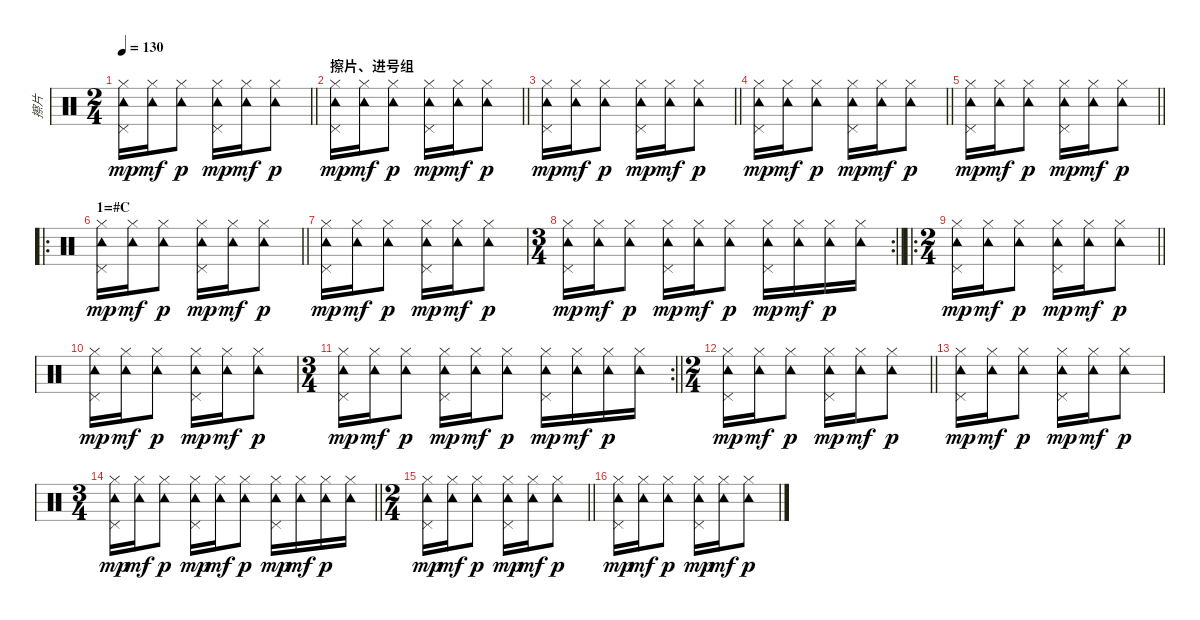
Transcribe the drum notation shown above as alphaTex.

\track ("擦片" "擦片") {instrument percussion}
\staff {score}
\articulation defaults
\ts (2 4)
\tempo 130
\clef neutral
\barLineRight lightlight
\ks c
("Hi-Hat (closed)" "Tambourine (hit)" "Pedal Hi-Hat (hit)").16{dy mp} ("Hi-Hat (closed)" "Tambourine (hit)").16{dy mf} ("Hi-Hat (closed)" "Tambourine (hit)").8{dy p} ("Hi-Hat (closed)" "Tambourine (hit)" "Pedal Hi-Hat (hit)").16{dy mp} ("Hi-Hat (closed)" "Tambourine (hit)").16{dy mf} ("Hi-Hat (closed)" "Tambourine (hit)").8{dy p} |
\section ("" "擦片、进号组")
\barLineRight lightlight
("Hi-Hat (closed)" "Tambourine (hit)" "Pedal Hi-Hat (hit)").16{dy mp} ("Hi-Hat (closed)" "Tambourine (hit)").16{dy mf} ("Hi-Hat (closed)" "Tambourine (hit)").8{dy p} ("Hi-Hat (closed)" "Tambourine (hit)" "Pedal Hi-Hat (hit)").16{dy mp} ("Hi-Hat (closed)" "Tambourine (hit)").16{dy mf} ("Hi-Hat (closed)" "Tambourine (hit)").8{dy p} |
\barLineRight lightlight
("Hi-Hat (closed)" "Tambourine (hit)" "Pedal Hi-Hat (hit)").16{dy mp} ("Hi-Hat (closed)" "Tambourine (hit)").16{dy mf} ("Hi-Hat (closed)" "Tambourine (hit)").8{dy p} ("Hi-Hat (closed)" "Tambourine (hit)" "Pedal Hi-Hat (hit)").16{dy mp} ("Hi-Hat (closed)" "Tambourine (hit)").16{dy mf} ("Hi-Hat (closed)" "Tambourine (hit)").8{dy p} |
\barLineRight lightlight
("Hi-Hat (closed)" "Tambourine (hit)" "Pedal Hi-Hat (hit)").16{dy mp} ("Hi-Hat (closed)" "Tambourine (hit)").16{dy mf} ("Hi-Hat (closed)" "Tambourine (hit)").8{dy p} ("Hi-Hat (closed)" "Tambourine (hit)" "Pedal Hi-Hat (hit)").16{dy mp} ("Hi-Hat (closed)" "Tambourine (hit)").16{dy mf} ("Hi-Hat (closed)" "Tambourine (hit)").8{dy p} |
\barLineRight lightlight
("Hi-Hat (closed)" "Tambourine (hit)" "Pedal Hi-Hat (hit)").16{dy mp} ("Hi-Hat (closed)" "Tambourine (hit)").16{dy mf} ("Hi-Hat (closed)" "Tambourine (hit)").8{dy p} ("Hi-Hat (closed)" "Tambourine (hit)" "Pedal Hi-Hat (hit)").16{dy mp} ("Hi-Hat (closed)" "Tambourine (hit)").16{dy mf} ("Hi-Hat (closed)" "Tambourine (hit)").8{dy p} |
\ro
\section ("" "1=#C")
\barLineRight lightlight
("Hi-Hat (closed)" "Tambourine (hit)" "Pedal Hi-Hat (hit)").16{dy mp} ("Hi-Hat (closed)" "Tambourine (hit)").16{dy mf} ("Hi-Hat (closed)" "Tambourine (hit)").8{dy p} ("Hi-Hat (closed)" "Tambourine (hit)" "Pedal Hi-Hat (hit)").16{dy mp} ("Hi-Hat (closed)" "Tambourine (hit)").16{dy mf} ("Hi-Hat (closed)" "Tambourine (hit)").8{dy p} |
("Hi-Hat (closed)" "Tambourine (hit)" "Pedal Hi-Hat (hit)").16{dy mp} ("Hi-Hat (closed)" "Tambourine (hit)").16{dy mf} ("Hi-Hat (closed)" "Tambourine (hit)").8{dy p} ("Hi-Hat (closed)" "Tambourine (hit)" "Pedal Hi-Hat (hit)").16{dy mp} ("Hi-Hat (closed)" "Tambourine (hit)").16{dy mf} ("Hi-Hat (closed)" "Tambourine (hit)").8{dy p} |
\rc 2
\ts (3 4)
\barLineRight lightlight
("Hi-Hat (closed)" "Tambourine (hit)" "Pedal Hi-Hat (hit)").16{dy mp} ("Hi-Hat (closed)" "Tambourine (hit)").16{dy mf} ("Hi-Hat (closed)" "Tambourine (hit)").8{dy p} ("Hi-Hat (closed)" "Tambourine (hit)" "Pedal Hi-Hat (hit)").16{dy mp} ("Hi-Hat (closed)" "Tambourine (hit)").16{dy mf} ("Hi-Hat (closed)" "Tambourine (hit)").8{dy p} ("Hi-Hat (closed)" "Tambourine (hit)" "Pedal Hi-Hat (hit)").16{dy mp} ("Hi-Hat (closed)" "Tambourine (hit)").16{dy mf} ("Hi-Hat (closed)" "Tambourine (hit)").16{dy p} ("Hi-Hat (closed)" "Tambourine (hit)").16 |
\ro
\ts (2 4)
\barLineRight lightlight
("Hi-Hat (closed)" "Tambourine (hit)" "Pedal Hi-Hat (hit)").16{dy mp} ("Hi-Hat (closed)" "Tambourine (hit)").16{dy mf} ("Hi-Hat (closed)" "Tambourine (hit)").8{dy p} ("Hi-Hat (closed)" "Tambourine (hit)" "Pedal Hi-Hat (hit)").16{dy mp} ("Hi-Hat (closed)" "Tambourine (hit)").16{dy mf} ("Hi-Hat (closed)" "Tambourine (hit)").8{dy p} |
("Hi-Hat (closed)" "Tambourine (hit)" "Pedal Hi-Hat (hit)").16{dy mp} ("Hi-Hat (closed)" "Tambourine (hit)").16{dy mf} ("Hi-Hat (closed)" "Tambourine (hit)").8{dy p} ("Hi-Hat (closed)" "Tambourine (hit)" "Pedal Hi-Hat (hit)").16{dy mp} ("Hi-Hat (closed)" "Tambourine (hit)").16{dy mf} ("Hi-Hat (closed)" "Tambourine (hit)").8{dy p} |
\rc 2
\ts (3 4)
\barLineRight lightlight
("Hi-Hat (closed)" "Tambourine (hit)" "Pedal Hi-Hat (hit)").16{dy mp} ("Hi-Hat (closed)" "Tambourine (hit)").16{dy mf} ("Hi-Hat (closed)" "Tambourine (hit)").8{dy p} ("Hi-Hat (closed)" "Tambourine (hit)" "Pedal Hi-Hat (hit)").16{dy mp} ("Hi-Hat (closed)" "Tambourine (hit)").16{dy mf} ("Hi-Hat (closed)" "Tambourine (hit)").8{dy p} ("Hi-Hat (closed)" "Tambourine (hit)" "Pedal Hi-Hat (hit)").16{dy mp} ("Hi-Hat (closed)" "Tambourine (hit)").16{dy mf} ("Hi-Hat (closed)" "Tambourine (hit)").16{dy p} ("Hi-Hat (closed)" "Tambourine (hit)").16 |
\ts (2 4)
\barLineRight lightlight
("Hi-Hat (closed)" "Tambourine (hit)" "Pedal Hi-Hat (hit)").16{dy mp} ("Hi-Hat (closed)" "Tambourine (hit)").16{dy mf} ("Hi-Hat (closed)" "Tambourine (hit)").8{dy p} ("Hi-Hat (closed)" "Tambourine (hit)" "Pedal Hi-Hat (hit)").16{dy mp} ("Hi-Hat (closed)" "Tambourine (hit)").16{dy mf} ("Hi-Hat (closed)" "Tambourine (hit)").8{dy p} |
("Hi-Hat (closed)" "Tambourine (hit)" "Pedal Hi-Hat (hit)").16{dy mp} ("Hi-Hat (closed)" "Tambourine (hit)").16{dy mf} ("Hi-Hat (closed)" "Tambourine (hit)").8{dy p} ("Hi-Hat (closed)" "Tambourine (hit)" "Pedal Hi-Hat (hit)").16{dy mp} ("Hi-Hat (closed)" "Tambourine (hit)").16{dy mf} ("Hi-Hat (closed)" "Tambourine (hit)").8{dy p} |
\ts (3 4)
\barLineRight lightlight
("Hi-Hat (closed)" "Tambourine (hit)" "Pedal Hi-Hat (hit)").16{dy mp} ("Hi-Hat (closed)" "Tambourine (hit)").16{dy mf} ("Hi-Hat (closed)" "Tambourine (hit)").8{dy p} ("Hi-Hat (closed)" "Tambourine (hit)" "Pedal Hi-Hat (hit)").16{dy mp} ("Hi-Hat (closed)" "Tambourine (hit)").16{dy mf} ("Hi-Hat (closed)" "Tambourine (hit)").8{dy p} ("Hi-Hat (closed)" "Tambourine (hit)" "Pedal Hi-Hat (hit)").16{dy mp} ("Hi-Hat (closed)" "Tambourine (hit)").16{dy mf} ("Hi-Hat (closed)" "Tambourine (hit)").16{dy p} ("Hi-Hat (closed)" "Tambourine (hit)").16 |
\ts (2 4)
\barLineRight lightlight
("Hi-Hat (closed)" "Tambourine (hit)" "Pedal Hi-Hat (hit)").16{dy mp} ("Hi-Hat (closed)" "Tambourine (hit)").16{dy mf} ("Hi-Hat (closed)" "Tambourine (hit)").8{dy p} ("Hi-Hat (closed)" "Tambourine (hit)" "Pedal Hi-Hat (hit)").16{dy mp} ("Hi-Hat (closed)" "Tambourine (hit)").16{dy mf} ("Hi-Hat (closed)" "Tambourine (hit)").8{dy p} |
("Hi-Hat (closed)" "Tambourine (hit)" "Pedal Hi-Hat (hit)").16{dy mp} ("Hi-Hat (closed)" "Tambourine (hit)").16{dy mf} ("Hi-Hat (closed)" "Tambourine (hit)").8{dy p} ("Hi-Hat (closed)" "Tambourine (hit)" "Pedal Hi-Hat (hit)").16{dy mp} ("Hi-Hat (closed)" "Tambourine (hit)").16{dy mf} ("Hi-Hat (closed)" "Tambourine (hit)").8{dy p}
